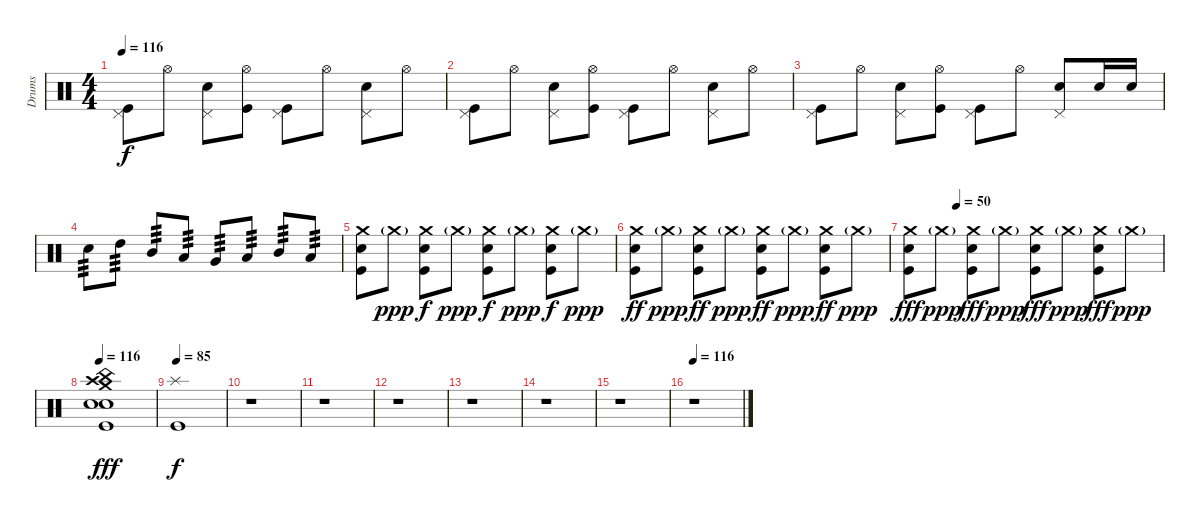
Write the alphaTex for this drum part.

\track ("Drums" "Drums") {instrument percussion}
\staff {score}
\articulation defaults
\ts (4 4)
\tempo 116
\clef neutral
\ks c
("Pedal Hi-Hat (hit)" "Kick (hit)").8{dy f} "Hi-Hat (open)".8 ("Pedal Hi-Hat (hit)" "Electric Snare (hit)").8 ("Hi-Hat (open)" "Kick (hit)").8 ("Pedal Hi-Hat (hit)" "Kick (hit)").8 "Hi-Hat (open)".8 ("Pedal Hi-Hat (hit)" "Electric Snare (hit)").8 "Hi-Hat (open)".8 |
("Pedal Hi-Hat (hit)" "Kick (hit)").8 "Hi-Hat (open)".8 ("Pedal Hi-Hat (hit)" "Electric Snare (hit)").8 ("Hi-Hat (open)" "Kick (hit)").8 ("Pedal Hi-Hat (hit)" "Kick (hit)").8 "Hi-Hat (open)".8 ("Pedal Hi-Hat (hit)" "Electric Snare (hit)").8 "Hi-Hat (open)".8 |
("Pedal Hi-Hat (hit)" "Kick (hit)").8 "Hi-Hat (open)".8 ("Pedal Hi-Hat (hit)" "Electric Snare (hit)").8 ("Hi-Hat (open)" "Kick (hit)").8 ("Pedal Hi-Hat (hit)" "Kick (hit)").8 "Hi-Hat (open)".8 ("Pedal Hi-Hat (hit)" "Electric Snare (hit)").8 "Electric Snare (hit)".16 "Electric Snare (hit)".16 |
"Electric Snare (hit)".8{tp 3} "High Tom (hit)".8{tp 3} "Mid Tom (hit)".8{tp 3} "Low Tom (hit)".8{tp 3} "Very Low Tom (hit)".8{tp 3} "Low Tom (hit)".8{tp 3} "Mid Tom (hit)".8{tp 3} "Low Tom (hit)".8{tp 3} |
("Crash medium (hit)" "Electric Snare (hit)" "Kick (hit)").8 "Crash medium (hit)"{g}.8{dy ppp} ("Crash medium (hit)" "Electric Snare (hit)" "Kick (hit)").8{dy f} "Crash medium (hit)"{g}.8{dy ppp} ("Crash medium (hit)" "Electric Snare (hit)" "Kick (hit)").8{dy f} "Crash medium (hit)"{g}.8{dy ppp} ("Crash medium (hit)" "Electric Snare (hit)" "Kick (hit)").8{dy f} "Crash medium (hit)"{g}.8{dy ppp} |
("Crash medium (hit)" "Electric Snare (hit)" "Kick (hit)").8{dy ff} "Crash medium (hit)"{g}.8{dy ppp} ("Crash medium (hit)" "Electric Snare (hit)" "Kick (hit)").8{dy ff} "Crash medium (hit)"{g}.8{dy ppp} ("Crash medium (hit)" "Electric Snare (hit)" "Kick (hit)").8{dy ff} "Crash medium (hit)"{g}.8{dy ppp} ("Crash medium (hit)" "Electric Snare (hit)" "Kick (hit)").8{dy ff} "Crash medium (hit)"{g}.8{dy ppp} |
\tempo (50 0.1875)
("Crash medium (hit)" "Electric Snare (hit)" "Kick (hit)").8{dy fff} "Crash medium (hit)"{g}.8{dy ppp} ("Crash medium (hit)" "Electric Snare (hit)" "Kick (hit)").8{dy fff} "Crash medium (hit)"{g}.8{dy ppp} ("Crash medium (hit)" "Electric Snare (hit)" "Kick (hit)").8{dy fff} "Crash medium (hit)"{g}.8{dy ppp} ("Crash medium (hit)" "Electric Snare (hit)" "Kick (hit)").8{dy fff} "Crash medium (hit)"{g}.8{dy ppp} |
\tempo 116
("Crash high (hit)" "Crash medium (hit)" "China (hit)" "Electric Snare (hit)" "Electric Snare (hit)" "Kick (hit)").1{dy fff} |
\tempo 85
("Splash (hit)" "Kick (hit)").1{dy f} |
r.1 |
r.1 |
r.1 |
r.1 |
r.1 |
r.1 |
\tempo 116
r.1
